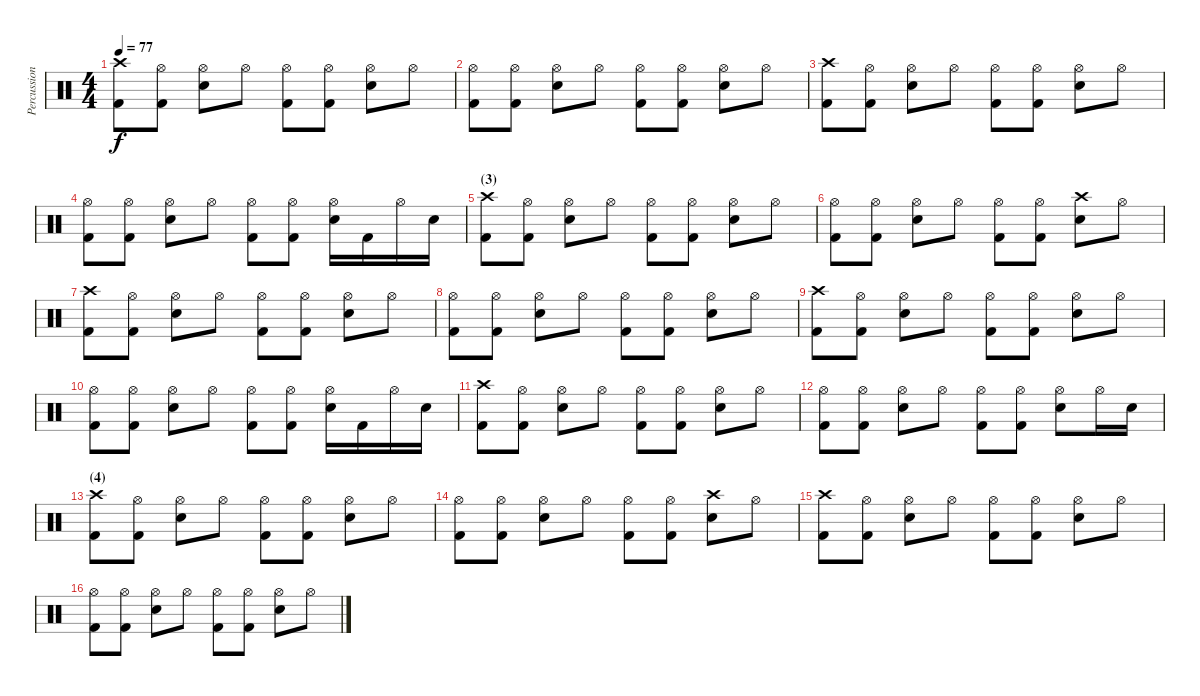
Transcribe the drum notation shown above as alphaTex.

\track ("Percussions" "Percussion") {instrument percussion}
\staff {score}
\articulation defaults
\ts (4 4)
\tempo 77
\clef neutral
\ks c
("Crash high (hit)" "Kick (hit) 2").8{dy f} ("Hi-Hat (open)" "Kick (hit) 2").8 ("Hi-Hat (open)" "Electric Snare (hit)").8 "Hi-Hat (open)".8 ("Hi-Hat (open)" "Kick (hit) 2").8 ("Hi-Hat (open)" "Kick (hit) 2").8 ("Hi-Hat (open)" "Electric Snare (hit)").8 "Hi-Hat (open)".8 |
("Hi-Hat (open)" "Kick (hit) 2").8 ("Hi-Hat (open)" "Kick (hit) 2").8 ("Hi-Hat (open)" "Electric Snare (hit)").8 "Hi-Hat (open)".8 ("Hi-Hat (open)" "Kick (hit) 2").8 ("Hi-Hat (open)" "Kick (hit) 2").8 ("Hi-Hat (open)" "Electric Snare (hit)").8 "Hi-Hat (open)".8 |
("Crash high (hit)" "Kick (hit) 2").8 ("Hi-Hat (open)" "Kick (hit) 2").8 ("Hi-Hat (open)" "Electric Snare (hit)").8 "Hi-Hat (open)".8 ("Hi-Hat (open)" "Kick (hit) 2").8 ("Hi-Hat (open)" "Kick (hit) 2").8 ("Hi-Hat (open)" "Electric Snare (hit)").8 "Hi-Hat (open)".8 |
("Hi-Hat (open)" "Kick (hit) 2").8 ("Hi-Hat (open)" "Kick (hit) 2").8 ("Hi-Hat (open)" "Electric Snare (hit)").8 "Hi-Hat (open)".8 ("Hi-Hat (open)" "Kick (hit) 2").8 ("Hi-Hat (open)" "Kick (hit) 2").8 ("Hi-Hat (open)" "Electric Snare (hit)").16 "Kick (hit) 2".16 "Hi-Hat (open)".16 "Electric Snare (hit)".16 |
\section ("" "(3)")
("Crash high (hit)" "Kick (hit) 2").8 ("Hi-Hat (open)" "Kick (hit) 2").8 ("Hi-Hat (open)" "Electric Snare (hit)").8 "Hi-Hat (open)".8 ("Hi-Hat (open)" "Kick (hit) 2").8 ("Hi-Hat (open)" "Kick (hit) 2").8 ("Hi-Hat (open)" "Electric Snare (hit)").8 "Hi-Hat (open)".8 |
("Hi-Hat (open)" "Kick (hit) 2").8 ("Hi-Hat (open)" "Kick (hit) 2").8 ("Hi-Hat (open)" "Electric Snare (hit)").8 "Hi-Hat (open)".8 ("Hi-Hat (open)" "Kick (hit) 2").8 ("Hi-Hat (open)" "Kick (hit) 2").8 ("Crash high (hit)" "Electric Snare (hit)").8 "Hi-Hat (open)".8 |
("Crash high (hit)" "Kick (hit) 2").8 ("Hi-Hat (open)" "Kick (hit) 2").8 ("Hi-Hat (open)" "Electric Snare (hit)").8 "Hi-Hat (open)".8 ("Hi-Hat (open)" "Kick (hit) 2").8 ("Hi-Hat (open)" "Kick (hit) 2").8 ("Hi-Hat (open)" "Electric Snare (hit)").8 "Hi-Hat (open)".8 |
("Hi-Hat (open)" "Kick (hit) 2").8 ("Hi-Hat (open)" "Kick (hit) 2").8 ("Hi-Hat (open)" "Electric Snare (hit)").8 "Hi-Hat (open)".8 ("Hi-Hat (open)" "Kick (hit) 2").8 ("Hi-Hat (open)" "Kick (hit) 2").8 ("Hi-Hat (open)" "Electric Snare (hit)").8 "Hi-Hat (open)".8 |
("Crash high (hit)" "Kick (hit) 2").8 ("Hi-Hat (open)" "Kick (hit) 2").8 ("Hi-Hat (open)" "Electric Snare (hit)").8 "Hi-Hat (open)".8 ("Hi-Hat (open)" "Kick (hit) 2").8 ("Hi-Hat (open)" "Kick (hit) 2").8 ("Hi-Hat (open)" "Electric Snare (hit)").8 "Hi-Hat (open)".8 |
("Hi-Hat (open)" "Kick (hit) 2").8 ("Hi-Hat (open)" "Kick (hit) 2").8 ("Hi-Hat (open)" "Electric Snare (hit)").8 "Hi-Hat (open)".8 ("Hi-Hat (open)" "Kick (hit) 2").8 ("Hi-Hat (open)" "Kick (hit) 2").8 ("Hi-Hat (open)" "Electric Snare (hit)").16 "Kick (hit) 2".16 "Hi-Hat (open)".16 "Electric Snare (hit)".16 |
("Crash high (hit)" "Kick (hit) 2").8 ("Hi-Hat (open)" "Kick (hit) 2").8 ("Hi-Hat (open)" "Electric Snare (hit)").8 "Hi-Hat (open)".8 ("Hi-Hat (open)" "Kick (hit) 2").8 ("Hi-Hat (open)" "Kick (hit) 2").8 ("Hi-Hat (open)" "Electric Snare (hit)").8 "Hi-Hat (open)".8 |
("Hi-Hat (open)" "Kick (hit) 2").8 ("Hi-Hat (open)" "Kick (hit) 2").8 ("Hi-Hat (open)" "Electric Snare (hit)").8 "Hi-Hat (open)".8 ("Hi-Hat (open)" "Kick (hit) 2").8 ("Hi-Hat (open)" "Kick (hit) 2").8 ("Hi-Hat (open)" "Electric Snare (hit)").8 "Hi-Hat (open)".16 "Electric Snare (hit)".16 |
\section ("" "(4)")
("Crash high (hit)" "Kick (hit) 2").8{volume 12} ("Hi-Hat (open)" "Kick (hit) 2").8 ("Hi-Hat (open)" "Electric Snare (hit)").8 "Hi-Hat (open)".8 ("Hi-Hat (open)" "Kick (hit) 2").8{volume 11} ("Hi-Hat (open)" "Kick (hit) 2").8 ("Hi-Hat (open)" "Electric Snare (hit)").8 "Hi-Hat (open)".8 |
("Hi-Hat (open)" "Kick (hit) 2").8{volume 10} ("Hi-Hat (open)" "Kick (hit) 2").8 ("Hi-Hat (open)" "Electric Snare (hit)").8 "Hi-Hat (open)".8 ("Hi-Hat (open)" "Kick (hit) 2").8{volume 9} ("Hi-Hat (open)" "Kick (hit) 2").8 ("Crash high (hit)" "Electric Snare (hit)").8 "Hi-Hat (open)".8 |
("Crash high (hit)" "Kick (hit) 2").8{volume 8} ("Hi-Hat (open)" "Kick (hit) 2").8 ("Hi-Hat (open)" "Electric Snare (hit)").8 "Hi-Hat (open)".8 ("Hi-Hat (open)" "Kick (hit) 2").8{volume 7} ("Hi-Hat (open)" "Kick (hit) 2").8 ("Hi-Hat (open)" "Electric Snare (hit)").8 "Hi-Hat (open)".8 |
("Hi-Hat (open)" "Kick (hit) 2").8{volume 6} ("Hi-Hat (open)" "Kick (hit) 2").8 ("Hi-Hat (open)" "Electric Snare (hit)").8 "Hi-Hat (open)".8 ("Hi-Hat (open)" "Kick (hit) 2").8{volume 5} ("Hi-Hat (open)" "Kick (hit) 2").8 ("Hi-Hat (open)" "Electric Snare (hit)").8 "Hi-Hat (open)".8
